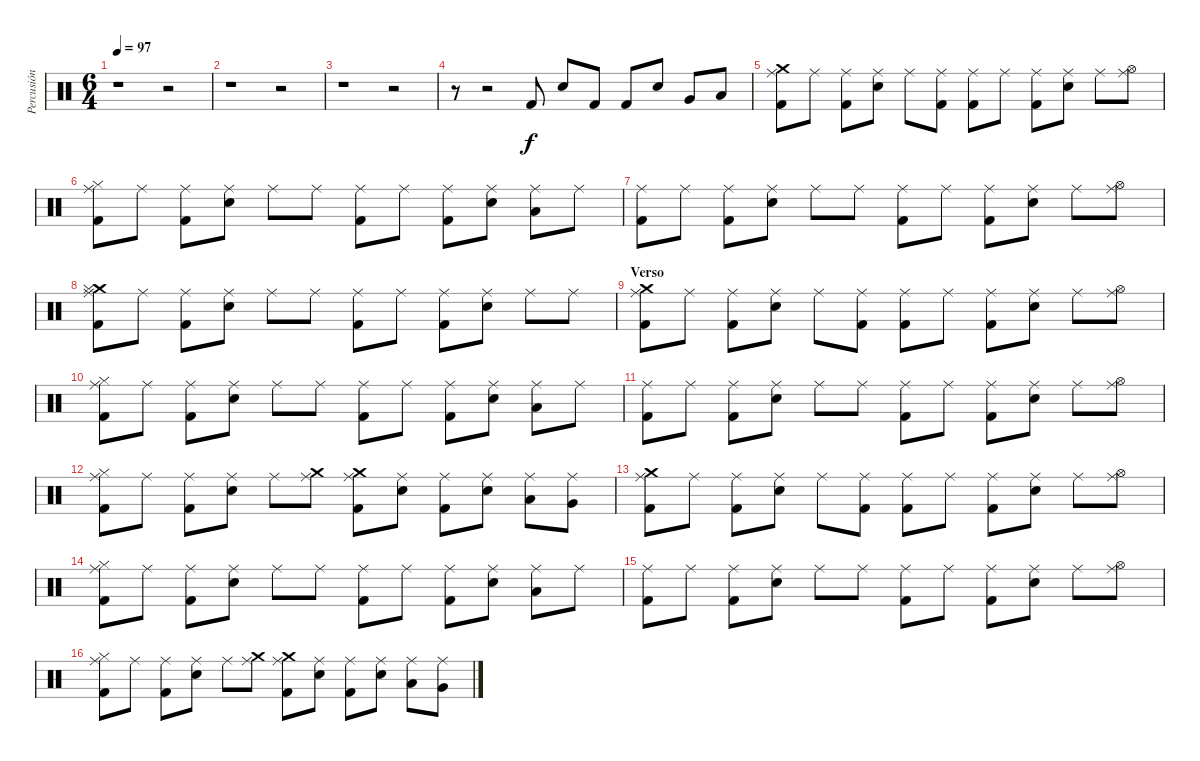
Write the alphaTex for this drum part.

\track ("Percusión" "Percusión") {instrument percussion}
\staff {score}
\articulation defaults
\ts (6 4)
\tempo 97
\clef neutral
\ks c
r.1{dy f} r.2 |
r.1 r.2 |
r.1 r.2 |
r.8 r.2 "Kick (hit) 2".8 "Electric Snare (hit)".8 "Kick (hit) 2".8 "Kick (hit) 2".8 "Electric Snare (hit)".8 "Very Low Tom (hit)".8 "Low Floor Tom (hit)".8 |
("Crash medium (hit)" "Ride (middle)" "Kick (hit) 2").8 "Ride (middle)".8 ("Ride (middle)" "Kick (hit) 2").8 ("Ride (middle)" "Electric Snare (hit)").8 "Ride (middle)".8 ("Ride (middle)" "Kick (hit) 2").8 ("Ride (middle)" "Kick (hit) 2").8 "Ride (middle)".8 ("Ride (middle)" "Kick (hit) 2").8 ("Ride (middle)" "Electric Snare (hit)").8 "Ride (middle)".8 ("Ride (middle)" "Hi-Hat (open)").8 |
("Ride (middle)" "Kick (hit) 2" "Hi-Hat (closed)").8 "Ride (middle)".8 ("Ride (middle)" "Kick (hit) 2").8 ("Ride (middle)" "Electric Snare (hit)").8 "Ride (middle)".8 "Ride (middle)".8 ("Ride (middle)" "Kick (hit) 2").8 "Ride (middle)".8 ("Ride (middle)" "Kick (hit) 2").8 ("Ride (middle)" "Electric Snare (hit)").8 ("Ride (middle)" "Low Floor Tom (hit)").8 "Ride (middle)".8 |
("Ride (middle)" "Kick (hit) 2").8 "Ride (middle)".8 ("Ride (middle)" "Kick (hit) 2").8 ("Ride (middle)" "Electric Snare (hit)").8 "Ride (middle)".8 "Ride (middle)".8 ("Ride (middle)" "Kick (hit) 2").8 "Ride (middle)".8 ("Ride (middle)" "Kick (hit) 2").8 ("Ride (middle)" "Electric Snare (hit)").8 "Ride (middle)".8 ("Ride (middle)" "Hi-Hat (open)").8 |
("Crash medium (hit)" "Ride (middle)" "Hi-Hat (closed)" "Kick (hit) 2").8 "Ride (middle)".8 ("Ride (middle)" "Kick (hit) 2").8 ("Ride (middle)" "Electric Snare (hit)").8 "Ride (middle)".8 "Ride (middle)".8 ("Ride (middle)" "Kick (hit) 2").8 "Ride (middle)".8 ("Ride (middle)" "Kick (hit) 2").8 ("Ride (middle)" "Electric Snare (hit)").8 "Ride (middle)".8 "Ride (middle)".8 |
\section ("" "Verso")
("Crash medium (hit)" "Ride (middle)" "Kick (hit) 2").8 "Ride (middle)".8 ("Ride (middle)" "Kick (hit) 2").8 ("Ride (middle)" "Electric Snare (hit)").8 "Ride (middle)".8 ("Ride (middle)" "Kick (hit) 2").8 ("Ride (middle)" "Kick (hit) 2").8 "Ride (middle)".8 ("Ride (middle)" "Kick (hit) 2").8 ("Ride (middle)" "Electric Snare (hit)").8 "Ride (middle)".8 ("Ride (middle)" "Hi-Hat (open)").8 |
("Ride (middle)" "Kick (hit) 2" "Hi-Hat (closed)").8 "Ride (middle)".8 ("Ride (middle)" "Kick (hit) 2").8 ("Ride (middle)" "Electric Snare (hit)").8 "Ride (middle)".8 "Ride (middle)".8 ("Ride (middle)" "Kick (hit) 2").8 "Ride (middle)".8 ("Ride (middle)" "Kick (hit) 2").8 ("Ride (middle)" "Electric Snare (hit)").8 ("Ride (middle)" "Low Floor Tom (hit)").8 "Ride (middle)".8 |
("Ride (middle)" "Kick (hit) 2").8 "Ride (middle)".8 ("Ride (middle)" "Kick (hit) 2").8 ("Ride (middle)" "Electric Snare (hit)").8 "Ride (middle)".8 "Ride (middle)".8 ("Ride (middle)" "Kick (hit) 2").8 "Ride (middle)".8 ("Ride (middle)" "Kick (hit) 2").8 ("Ride (middle)" "Electric Snare (hit)").8 "Ride (middle)".8 ("Ride (middle)" "Hi-Hat (open)").8 |
("Ride (middle)" "Hi-Hat (closed)" "Kick (hit) 2").8 "Ride (middle)".8 ("Ride (middle)" "Kick (hit) 2").8 ("Ride (middle)" "Electric Snare (hit)").8 "Ride (middle)".8 ("Ride (middle)" "Crash medium (hit)").8 ("Ride (middle)" "Crash medium (hit)" "Kick (hit) 2").8 ("Ride (middle)" "Electric Snare (hit)").8 ("Ride (middle)" "Kick (hit) 2").8 ("Ride (middle)" "Electric Snare (hit)").8 ("Ride (middle)" "Low Floor Tom (hit)").8 ("Ride (middle)" "Very Low Tom (hit)").8 |
("Crash medium (hit)" "Ride (middle)" "Kick (hit) 2").8 "Ride (middle)".8 ("Ride (middle)" "Kick (hit) 2").8 ("Ride (middle)" "Electric Snare (hit)").8 "Ride (middle)".8 ("Ride (middle)" "Kick (hit) 2").8 ("Ride (middle)" "Kick (hit) 2").8 "Ride (middle)".8 ("Ride (middle)" "Kick (hit) 2").8 ("Ride (middle)" "Electric Snare (hit)").8 "Ride (middle)".8 ("Ride (middle)" "Hi-Hat (open)").8 |
("Ride (middle)" "Kick (hit) 2" "Hi-Hat (closed)").8 "Ride (middle)".8 ("Ride (middle)" "Kick (hit) 2").8 ("Ride (middle)" "Electric Snare (hit)").8 "Ride (middle)".8 "Ride (middle)".8 ("Ride (middle)" "Kick (hit) 2").8 "Ride (middle)".8 ("Ride (middle)" "Kick (hit) 2").8 ("Ride (middle)" "Electric Snare (hit)").8 ("Ride (middle)" "Low Floor Tom (hit)").8 "Ride (middle)".8 |
("Ride (middle)" "Kick (hit) 2").8 "Ride (middle)".8 ("Ride (middle)" "Kick (hit) 2").8 ("Ride (middle)" "Electric Snare (hit)").8 "Ride (middle)".8 "Ride (middle)".8 ("Ride (middle)" "Kick (hit) 2").8 "Ride (middle)".8 ("Ride (middle)" "Kick (hit) 2").8 ("Ride (middle)" "Electric Snare (hit)").8 "Ride (middle)".8 ("Ride (middle)" "Hi-Hat (open)").8 |
("Ride (middle)" "Hi-Hat (closed)" "Kick (hit) 2").8 "Ride (middle)".8 ("Ride (middle)" "Kick (hit) 2").8 ("Ride (middle)" "Electric Snare (hit)").8 "Ride (middle)".8 ("Ride (middle)" "Crash medium (hit)").8 ("Ride (middle)" "Crash medium (hit)" "Kick (hit) 2").8 ("Ride (middle)" "Electric Snare (hit)").8 ("Ride (middle)" "Kick (hit) 2").8 ("Ride (middle)" "Electric Snare (hit)").8 ("Ride (middle)" "Low Floor Tom (hit)").8 ("Ride (middle)" "Very Low Tom (hit)").8
